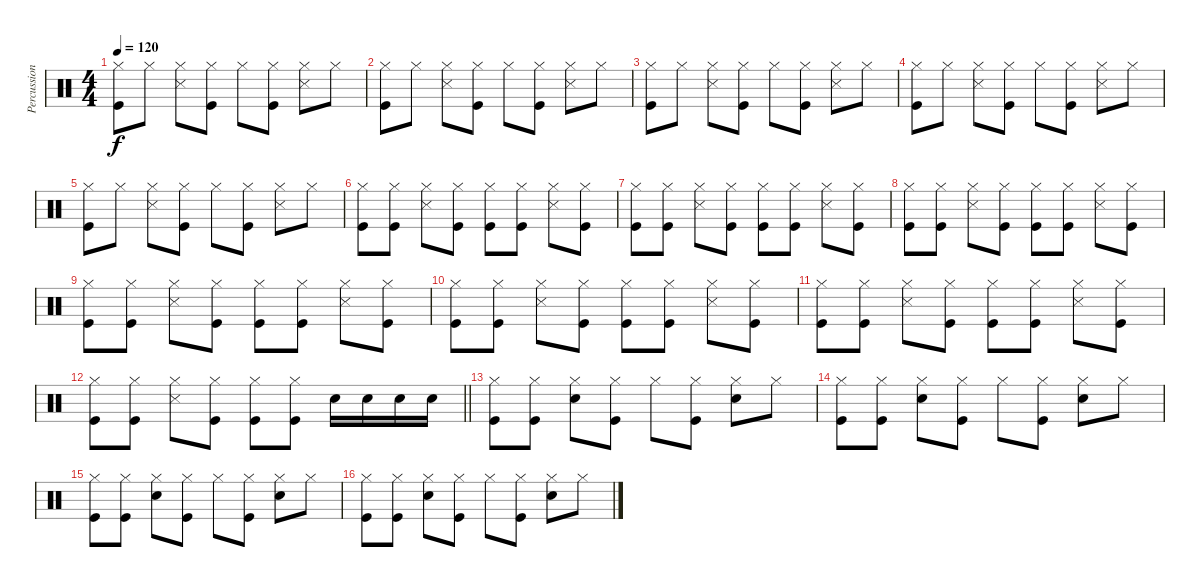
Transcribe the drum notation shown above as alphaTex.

\track ("Percussion" "Percussion") {instrument percussion}
\staff {score}
\articulation defaults
\ts (4 4)
\tempo 120
\clef neutral
\ks c
("Hi-Hat (closed)" "Kick (hit)").8{dy f} "Hi-Hat (closed)".8 ("Hi-Hat (closed)" "Snare (side stick) 3").8 ("Hi-Hat (closed)" "Kick (hit)").8 "Hi-Hat (closed)".8 ("Hi-Hat (closed)" "Kick (hit)").8 ("Hi-Hat (closed)" "Snare (side stick) 3").8 "Hi-Hat (closed)".8 |
("Hi-Hat (closed)" "Kick (hit)").8 "Hi-Hat (closed)".8 ("Hi-Hat (closed)" "Snare (side stick) 3").8 ("Hi-Hat (closed)" "Kick (hit)").8 "Hi-Hat (closed)".8 ("Hi-Hat (closed)" "Kick (hit)").8 ("Hi-Hat (closed)" "Snare (side stick) 3").8 "Hi-Hat (closed)".8 |
("Hi-Hat (closed)" "Kick (hit)").8 "Hi-Hat (closed)".8 ("Hi-Hat (closed)" "Snare (side stick) 3").8 ("Hi-Hat (closed)" "Kick (hit)").8 "Hi-Hat (closed)".8 ("Hi-Hat (closed)" "Kick (hit)").8 ("Hi-Hat (closed)" "Snare (side stick) 3").8 "Hi-Hat (closed)".8 |
("Hi-Hat (closed)" "Kick (hit)").8 "Hi-Hat (closed)".8 ("Hi-Hat (closed)" "Snare (side stick) 3").8 ("Hi-Hat (closed)" "Kick (hit)").8 "Hi-Hat (closed)".8 ("Hi-Hat (closed)" "Kick (hit)").8 ("Hi-Hat (closed)" "Snare (side stick) 3").8 "Hi-Hat (closed)".8 |
("Hi-Hat (closed)" "Kick (hit)").8 "Hi-Hat (closed)".8 ("Hi-Hat (closed)" "Snare (side stick) 3").8 ("Hi-Hat (closed)" "Kick (hit)").8 "Hi-Hat (closed)".8 ("Hi-Hat (closed)" "Kick (hit)").8 ("Hi-Hat (closed)" "Snare (side stick) 3").8 "Hi-Hat (closed)".8 |
("Hi-Hat (closed)" "Kick (hit)").8 ("Hi-Hat (closed)" "Kick (hit)").8 ("Hi-Hat (closed)" "Snare (side stick) 3").8 ("Hi-Hat (closed)" "Kick (hit)").8 ("Hi-Hat (closed)" "Kick (hit)").8 ("Hi-Hat (closed)" "Kick (hit)").8 ("Hi-Hat (closed)" "Snare (side stick) 3").8 ("Hi-Hat (closed)" "Kick (hit)").8 |
("Hi-Hat (closed)" "Kick (hit)").8 ("Hi-Hat (closed)" "Kick (hit)").8 ("Hi-Hat (closed)" "Snare (side stick) 3").8 ("Hi-Hat (closed)" "Kick (hit)").8 ("Hi-Hat (closed)" "Kick (hit)").8 ("Hi-Hat (closed)" "Kick (hit)").8 ("Hi-Hat (closed)" "Snare (side stick) 3").8 ("Hi-Hat (closed)" "Kick (hit)").8 |
("Hi-Hat (closed)" "Kick (hit)").8 ("Hi-Hat (closed)" "Kick (hit)").8 ("Hi-Hat (closed)" "Snare (side stick) 3").8 ("Hi-Hat (closed)" "Kick (hit)").8 ("Hi-Hat (closed)" "Kick (hit)").8 ("Hi-Hat (closed)" "Kick (hit)").8 ("Hi-Hat (closed)" "Snare (side stick) 3").8 ("Hi-Hat (closed)" "Kick (hit)").8 |
("Hi-Hat (closed)" "Kick (hit)").8 ("Hi-Hat (closed)" "Kick (hit)").8 ("Hi-Hat (closed)" "Snare (side stick) 3").8 ("Hi-Hat (closed)" "Kick (hit)").8 ("Hi-Hat (closed)" "Kick (hit)").8 ("Hi-Hat (closed)" "Kick (hit)").8 ("Hi-Hat (closed)" "Snare (side stick) 3").8 ("Hi-Hat (closed)" "Kick (hit)").8 |
("Hi-Hat (closed)" "Kick (hit)").8 ("Hi-Hat (closed)" "Kick (hit)").8 ("Hi-Hat (closed)" "Snare (side stick) 3").8 ("Hi-Hat (closed)" "Kick (hit)").8 ("Hi-Hat (closed)" "Kick (hit)").8 ("Hi-Hat (closed)" "Kick (hit)").8 ("Hi-Hat (closed)" "Snare (side stick) 3").8 ("Hi-Hat (closed)" "Kick (hit)").8 |
("Hi-Hat (closed)" "Kick (hit)").8 ("Hi-Hat (closed)" "Kick (hit)").8 ("Hi-Hat (closed)" "Snare (side stick) 3").8 ("Hi-Hat (closed)" "Kick (hit)").8 ("Hi-Hat (closed)" "Kick (hit)").8 ("Hi-Hat (closed)" "Kick (hit)").8 ("Hi-Hat (closed)" "Snare (side stick) 3").8 ("Hi-Hat (closed)" "Kick (hit)").8 |
\barLineRight lightlight
("Hi-Hat (closed)" "Kick (hit)").8 ("Hi-Hat (closed)" "Kick (hit)").8 ("Hi-Hat (closed)" "Snare (side stick) 3").8 ("Hi-Hat (closed)" "Kick (hit)").8 ("Hi-Hat (closed)" "Kick (hit)").8 ("Hi-Hat (closed)" "Kick (hit)").8 "Snare (hit) 2".16 "Snare (hit) 2".16 "Snare (hit) 2".16 "Snare (hit) 2".16 |
("Hi-Hat (closed)" "Kick (hit)").8 ("Hi-Hat (closed)" "Kick (hit)").8 ("Hi-Hat (closed)" "Snare (hit) 2").8 ("Hi-Hat (closed)" "Kick (hit)").8 "Hi-Hat (closed)".8 ("Hi-Hat (closed)" "Kick (hit)").8 ("Hi-Hat (closed)" "Snare (hit) 2").8 "Hi-Hat (closed)".8 |
("Hi-Hat (closed)" "Kick (hit)").8 ("Hi-Hat (closed)" "Kick (hit)").8 ("Hi-Hat (closed)" "Snare (hit) 2").8 ("Hi-Hat (closed)" "Kick (hit)").8 "Hi-Hat (closed)".8 ("Hi-Hat (closed)" "Kick (hit)").8 ("Hi-Hat (closed)" "Snare (hit) 2").8 "Hi-Hat (closed)".8 |
("Hi-Hat (closed)" "Kick (hit)").8 ("Hi-Hat (closed)" "Kick (hit)").8 ("Hi-Hat (closed)" "Snare (hit) 2").8 ("Hi-Hat (closed)" "Kick (hit)").8 "Hi-Hat (closed)".8 ("Hi-Hat (closed)" "Kick (hit)").8 ("Hi-Hat (closed)" "Snare (hit) 2").8 "Hi-Hat (closed)".8 |
("Hi-Hat (closed)" "Kick (hit)").8 ("Hi-Hat (closed)" "Kick (hit)").8 ("Hi-Hat (closed)" "Snare (hit) 2").8 ("Hi-Hat (closed)" "Kick (hit)").8 "Hi-Hat (closed)".8 ("Hi-Hat (closed)" "Kick (hit)").8 ("Hi-Hat (closed)" "Snare (hit) 2").8 "Hi-Hat (closed)".8
